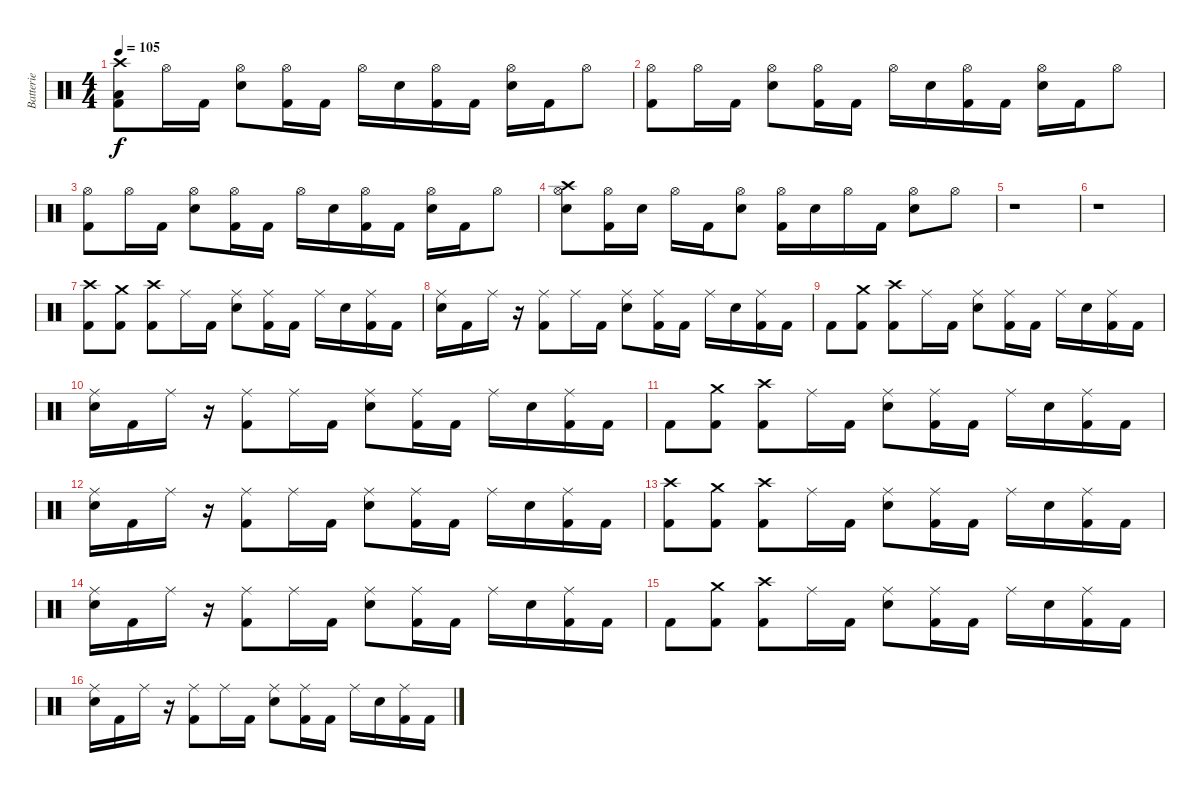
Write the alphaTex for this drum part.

\track ("Batterie" "Batterie") {instrument percussion}
\staff {score}
\articulation defaults
\ts (4 4)
\tempo 105
\clef neutral
\ks c
("Low Floor Tom (hit)" "Crash high (hit)" "Kick (hit) 2").8{dy f} "Hi-Hat (open)".16 "Kick (hit) 2".16 ("Hi-Hat (open)" "Electric Snare (hit)").8 ("Hi-Hat (open)" "Kick (hit) 2").16 "Kick (hit) 2".16 "Hi-Hat (open)".16 "Electric Snare (hit)".16 ("Hi-Hat (open)" "Kick (hit) 2").16 "Kick (hit) 2".16 ("Hi-Hat (open)" "Electric Snare (hit)").16 "Kick (hit) 2".16 "Hi-Hat (open)".8 |
("Hi-Hat (open)" "Kick (hit) 2").8 "Hi-Hat (open)".16 "Kick (hit) 2".16 ("Hi-Hat (open)" "Electric Snare (hit)").8 ("Hi-Hat (open)" "Kick (hit) 2").16 "Kick (hit) 2".16 "Hi-Hat (open)".16 "Electric Snare (hit)".16 ("Hi-Hat (open)" "Kick (hit) 2").16 "Kick (hit) 2".16 ("Hi-Hat (open)" "Electric Snare (hit)").16 "Kick (hit) 2".16 "Hi-Hat (open)".8 |
("Hi-Hat (open)" "Kick (hit) 2").8 "Hi-Hat (open)".16 "Kick (hit) 2".16 ("Hi-Hat (open)" "Electric Snare (hit)").8 ("Hi-Hat (open)" "Kick (hit) 2").16 "Kick (hit) 2".16 "Hi-Hat (open)".16 "Electric Snare (hit)".16 ("Hi-Hat (open)" "Kick (hit) 2").16 "Kick (hit) 2".16 ("Hi-Hat (open)" "Electric Snare (hit)").16 "Kick (hit) 2".16 "Hi-Hat (open)".8 |
("Hi-Hat (open)" "Crash high (hit)" "Electric Snare (hit)").8 ("Hi-Hat (open)" "Kick (hit) 2").16 "Electric Snare (hit)".16 "Hi-Hat (open)".16 "Kick (hit) 2".16 ("Hi-Hat (open)" "Electric Snare (hit)").8 ("Hi-Hat (open)" "Kick (hit) 2").16 "Electric Snare (hit)".16 "Hi-Hat (open)".16 "Kick (hit) 2".16 ("Hi-Hat (open)" "Electric Snare (hit)").8 "Hi-Hat (open)".8 |
r.1 |
r.1 |
("Crash high (hit)" "Kick (hit) 2").8 ("Crash medium (hit)" "Kick (hit) 2").8 ("Crash high (hit)" "Kick (hit) 2").8 "Ride (middle)".16 "Kick (hit) 2".16 ("Ride (middle)" "Electric Snare (hit)").8 ("Ride (middle)" "Kick (hit) 2").16 "Kick (hit) 2".16 "Ride (middle)".16 "Electric Snare (hit)".16 ("Ride (middle)" "Kick (hit) 2").16 "Kick (hit) 2".16 |
("Ride (middle)" "Electric Snare (hit)").16 "Kick (hit) 2".16 "Ride (middle)".16 r.16 ("Ride (middle)" "Kick (hit) 2").8 "Ride (middle)".16 "Kick (hit) 2".16 ("Ride (middle)" "Electric Snare (hit)").8 ("Ride (middle)" "Kick (hit) 2").16 "Kick (hit) 2".16 "Ride (middle)".16 "Electric Snare (hit)".16 ("Ride (middle)" "Kick (hit) 2").16 "Kick (hit) 2".16 |
"Kick (hit) 2".8 ("Crash medium (hit)" "Kick (hit) 2").8 ("Crash high (hit)" "Kick (hit) 2").8 "Ride (middle)".16 "Kick (hit) 2".16 ("Ride (middle)" "Electric Snare (hit)").8 ("Ride (middle)" "Kick (hit) 2").16 "Kick (hit) 2".16 "Ride (middle)".16 "Electric Snare (hit)".16 ("Ride (middle)" "Kick (hit) 2").16 "Kick (hit) 2".16 |
("Ride (middle)" "Electric Snare (hit)").16 "Kick (hit) 2".16 "Ride (middle)".16 r.16 ("Ride (middle)" "Kick (hit) 2").8 "Ride (middle)".16 "Kick (hit) 2".16 ("Ride (middle)" "Electric Snare (hit)").8 ("Ride (middle)" "Kick (hit) 2").16 "Kick (hit) 2".16 "Ride (middle)".16 "Electric Snare (hit)".16 ("Ride (middle)" "Kick (hit) 2").16 "Kick (hit) 2".16 |
"Kick (hit) 2".8 ("Crash medium (hit)" "Kick (hit) 2").8 ("Crash high (hit)" "Kick (hit) 2").8 "Ride (middle)".16 "Kick (hit) 2".16 ("Ride (middle)" "Electric Snare (hit)").8 ("Ride (middle)" "Kick (hit) 2").16 "Kick (hit) 2".16 "Ride (middle)".16 "Electric Snare (hit)".16 ("Ride (middle)" "Kick (hit) 2").16 "Kick (hit) 2".16 |
("Ride (middle)" "Electric Snare (hit)").16 "Kick (hit) 2".16 "Ride (middle)".16 r.16 ("Ride (middle)" "Kick (hit) 2").8 "Ride (middle)".16 "Kick (hit) 2".16 ("Ride (middle)" "Electric Snare (hit)").8 ("Ride (middle)" "Kick (hit) 2").16 "Kick (hit) 2".16 "Ride (middle)".16 "Electric Snare (hit)".16 ("Ride (middle)" "Kick (hit) 2").16 "Kick (hit) 2".16 |
("Crash high (hit)" "Kick (hit) 2").8 ("Crash medium (hit)" "Kick (hit) 2").8 ("Crash high (hit)" "Kick (hit) 2").8 "Ride (middle)".16 "Kick (hit) 2".16 ("Ride (middle)" "Electric Snare (hit)").8 ("Ride (middle)" "Kick (hit) 2").16 "Kick (hit) 2".16 "Ride (middle)".16 "Electric Snare (hit)".16 ("Ride (middle)" "Kick (hit) 2").16 "Kick (hit) 2".16 |
("Ride (middle)" "Electric Snare (hit)").16 "Kick (hit) 2".16 "Ride (middle)".16 r.16 ("Ride (middle)" "Kick (hit) 2").8 "Ride (middle)".16 "Kick (hit) 2".16 ("Ride (middle)" "Electric Snare (hit)").8 ("Ride (middle)" "Kick (hit) 2").16 "Kick (hit) 2".16 "Ride (middle)".16 "Electric Snare (hit)".16 ("Ride (middle)" "Kick (hit) 2").16 "Kick (hit) 2".16 |
"Kick (hit) 2".8 ("Crash medium (hit)" "Kick (hit) 2").8 ("Crash high (hit)" "Kick (hit) 2").8 "Ride (middle)".16 "Kick (hit) 2".16 ("Ride (middle)" "Electric Snare (hit)").8 ("Ride (middle)" "Kick (hit) 2").16 "Kick (hit) 2".16 "Ride (middle)".16 "Electric Snare (hit)".16 ("Ride (middle)" "Kick (hit) 2").16 "Kick (hit) 2".16 |
("Ride (middle)" "Electric Snare (hit)").16 "Kick (hit) 2".16 "Ride (middle)".16 r.16 ("Ride (middle)" "Kick (hit) 2").8 "Ride (middle)".16 "Kick (hit) 2".16 ("Ride (middle)" "Electric Snare (hit)").8 ("Ride (middle)" "Kick (hit) 2").16 "Kick (hit) 2".16 "Ride (middle)".16 "Electric Snare (hit)".16 ("Ride (middle)" "Kick (hit) 2").16 "Kick (hit) 2".16
